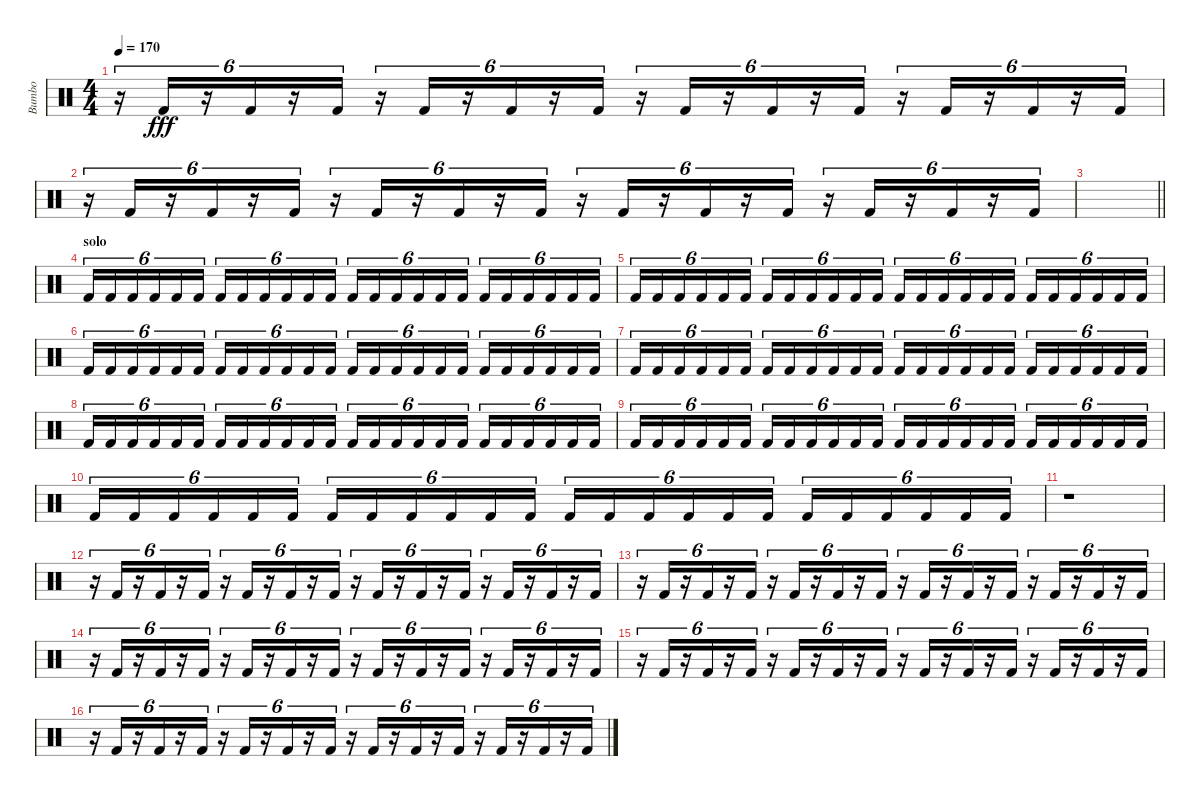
\track ("Bumbo" "Bumbo") {instrument percussion}
\staff {score}
\articulation defaults
\ts (4 4)
\tempo 170
\clef neutral
\ks c
r.16{tu (6 4) dy fff} "Kick (hit) 2".16{tu (6 4)} r.16{tu (6 4)} "Kick (hit) 2".16{tu (6 4)} r.16{tu (6 4)} "Kick (hit) 2".16{tu (6 4)} r.16{tu (6 4)} "Kick (hit) 2".16{tu (6 4)} r.16{tu (6 4)} "Kick (hit) 2".16{tu (6 4)} r.16{tu (6 4)} "Kick (hit) 2".16{tu (6 4)} r.16{tu (6 4)} "Kick (hit) 2".16{tu (6 4)} r.16{tu (6 4)} "Kick (hit) 2".16{tu (6 4)} r.16{tu (6 4)} "Kick (hit) 2".16{tu (6 4)} r.16{tu (6 4)} "Kick (hit) 2".16{tu (6 4)} r.16{tu (6 4)} "Kick (hit) 2".16{tu (6 4)} r.16{tu (6 4)} "Kick (hit) 2".16{tu (6 4)} |
r.16{tu (6 4)} "Kick (hit) 2".16{tu (6 4)} r.16{tu (6 4)} "Kick (hit) 2".16{tu (6 4)} r.16{tu (6 4)} "Kick (hit) 2".16{tu (6 4)} r.16{tu (6 4)} "Kick (hit) 2".16{tu (6 4)} r.16{tu (6 4)} "Kick (hit) 2".16{tu (6 4)} r.16{tu (6 4)} "Kick (hit) 2".16{tu (6 4)} r.16{tu (6 4)} "Kick (hit) 2".16{tu (6 4)} r.16{tu (6 4)} "Kick (hit) 2".16{tu (6 4)} r.16{tu (6 4)} "Kick (hit) 2".16{tu (6 4)} r.16{tu (6 4)} "Kick (hit) 2".16{tu (6 4)} r.16{tu (6 4)} "Kick (hit) 2".16{tu (6 4)} r.16{tu (6 4)} "Kick (hit) 2".16{tu (6 4)} |
\barLineRight lightlight
|
\section ("" "solo")
"Kick (hit) 2".16{tu (6 4)} "Kick (hit) 2".16{tu (6 4)} "Kick (hit) 2".16{tu (6 4)} "Kick (hit) 2".16{tu (6 4)} "Kick (hit) 2".16{tu (6 4)} "Kick (hit) 2".16{tu (6 4)} "Kick (hit) 2".16{tu (6 4)} "Kick (hit) 2".16{tu (6 4)} "Kick (hit) 2".16{tu (6 4)} "Kick (hit) 2".16{tu (6 4)} "Kick (hit) 2".16{tu (6 4)} "Kick (hit) 2".16{tu (6 4)} "Kick (hit) 2".16{tu (6 4)} "Kick (hit) 2".16{tu (6 4)} "Kick (hit) 2".16{tu (6 4)} "Kick (hit) 2".16{tu (6 4)} "Kick (hit) 2".16{tu (6 4)} "Kick (hit) 2".16{tu (6 4)} "Kick (hit) 2".16{tu (6 4)} "Kick (hit) 2".16{tu (6 4)} "Kick (hit) 2".16{tu (6 4)} "Kick (hit) 2".16{tu (6 4)} "Kick (hit) 2".16{tu (6 4)} "Kick (hit) 2".16{tu (6 4)} |
"Kick (hit) 2".16{tu (6 4)} "Kick (hit) 2".16{tu (6 4)} "Kick (hit) 2".16{tu (6 4)} "Kick (hit) 2".16{tu (6 4)} "Kick (hit) 2".16{tu (6 4)} "Kick (hit) 2".16{tu (6 4)} "Kick (hit) 2".16{tu (6 4)} "Kick (hit) 2".16{tu (6 4)} "Kick (hit) 2".16{tu (6 4)} "Kick (hit) 2".16{tu (6 4)} "Kick (hit) 2".16{tu (6 4)} "Kick (hit) 2".16{tu (6 4)} "Kick (hit) 2".16{tu (6 4)} "Kick (hit) 2".16{tu (6 4)} "Kick (hit) 2".16{tu (6 4)} "Kick (hit) 2".16{tu (6 4)} "Kick (hit) 2".16{tu (6 4)} "Kick (hit) 2".16{tu (6 4)} "Kick (hit) 2".16{tu (6 4)} "Kick (hit) 2".16{tu (6 4)} "Kick (hit) 2".16{tu (6 4)} "Kick (hit) 2".16{tu (6 4)} "Kick (hit) 2".16{tu (6 4)} "Kick (hit) 2".16{tu (6 4)} |
"Kick (hit) 2".16{tu (6 4)} "Kick (hit) 2".16{tu (6 4)} "Kick (hit) 2".16{tu (6 4)} "Kick (hit) 2".16{tu (6 4)} "Kick (hit) 2".16{tu (6 4)} "Kick (hit) 2".16{tu (6 4)} "Kick (hit) 2".16{tu (6 4)} "Kick (hit) 2".16{tu (6 4)} "Kick (hit) 2".16{tu (6 4)} "Kick (hit) 2".16{tu (6 4)} "Kick (hit) 2".16{tu (6 4)} "Kick (hit) 2".16{tu (6 4)} "Kick (hit) 2".16{tu (6 4)} "Kick (hit) 2".16{tu (6 4)} "Kick (hit) 2".16{tu (6 4)} "Kick (hit) 2".16{tu (6 4)} "Kick (hit) 2".16{tu (6 4)} "Kick (hit) 2".16{tu (6 4)} "Kick (hit) 2".16{tu (6 4)} "Kick (hit) 2".16{tu (6 4)} "Kick (hit) 2".16{tu (6 4)} "Kick (hit) 2".16{tu (6 4)} "Kick (hit) 2".16{tu (6 4)} "Kick (hit) 2".16{tu (6 4)} |
"Kick (hit) 2".16{tu (6 4)} "Kick (hit) 2".16{tu (6 4)} "Kick (hit) 2".16{tu (6 4)} "Kick (hit) 2".16{tu (6 4)} "Kick (hit) 2".16{tu (6 4)} "Kick (hit) 2".16{tu (6 4)} "Kick (hit) 2".16{tu (6 4)} "Kick (hit) 2".16{tu (6 4)} "Kick (hit) 2".16{tu (6 4)} "Kick (hit) 2".16{tu (6 4)} "Kick (hit) 2".16{tu (6 4)} "Kick (hit) 2".16{tu (6 4)} "Kick (hit) 2".16{tu (6 4)} "Kick (hit) 2".16{tu (6 4)} "Kick (hit) 2".16{tu (6 4)} "Kick (hit) 2".16{tu (6 4)} "Kick (hit) 2".16{tu (6 4)} "Kick (hit) 2".16{tu (6 4)} "Kick (hit) 2".16{tu (6 4)} "Kick (hit) 2".16{tu (6 4)} "Kick (hit) 2".16{tu (6 4)} "Kick (hit) 2".16{tu (6 4)} "Kick (hit) 2".16{tu (6 4)} "Kick (hit) 2".16{tu (6 4)} |
"Kick (hit) 2".16{tu (6 4)} "Kick (hit) 2".16{tu (6 4)} "Kick (hit) 2".16{tu (6 4)} "Kick (hit) 2".16{tu (6 4)} "Kick (hit) 2".16{tu (6 4)} "Kick (hit) 2".16{tu (6 4)} "Kick (hit) 2".16{tu (6 4)} "Kick (hit) 2".16{tu (6 4)} "Kick (hit) 2".16{tu (6 4)} "Kick (hit) 2".16{tu (6 4)} "Kick (hit) 2".16{tu (6 4)} "Kick (hit) 2".16{tu (6 4)} "Kick (hit) 2".16{tu (6 4)} "Kick (hit) 2".16{tu (6 4)} "Kick (hit) 2".16{tu (6 4)} "Kick (hit) 2".16{tu (6 4)} "Kick (hit) 2".16{tu (6 4)} "Kick (hit) 2".16{tu (6 4)} "Kick (hit) 2".16{tu (6 4)} "Kick (hit) 2".16{tu (6 4)} "Kick (hit) 2".16{tu (6 4)} "Kick (hit) 2".16{tu (6 4)} "Kick (hit) 2".16{tu (6 4)} "Kick (hit) 2".16{tu (6 4)} |
"Kick (hit) 2".16{tu (6 4)} "Kick (hit) 2".16{tu (6 4)} "Kick (hit) 2".16{tu (6 4)} "Kick (hit) 2".16{tu (6 4)} "Kick (hit) 2".16{tu (6 4)} "Kick (hit) 2".16{tu (6 4)} "Kick (hit) 2".16{tu (6 4)} "Kick (hit) 2".16{tu (6 4)} "Kick (hit) 2".16{tu (6 4)} "Kick (hit) 2".16{tu (6 4)} "Kick (hit) 2".16{tu (6 4)} "Kick (hit) 2".16{tu (6 4)} "Kick (hit) 2".16{tu (6 4)} "Kick (hit) 2".16{tu (6 4)} "Kick (hit) 2".16{tu (6 4)} "Kick (hit) 2".16{tu (6 4)} "Kick (hit) 2".16{tu (6 4)} "Kick (hit) 2".16{tu (6 4)} "Kick (hit) 2".16{tu (6 4)} "Kick (hit) 2".16{tu (6 4)} "Kick (hit) 2".16{tu (6 4)} "Kick (hit) 2".16{tu (6 4)} "Kick (hit) 2".16{tu (6 4)} "Kick (hit) 2".16{tu (6 4)} |
"Kick (hit) 2".16{tu (6 4)} "Kick (hit) 2".16{tu (6 4)} "Kick (hit) 2".16{tu (6 4)} "Kick (hit) 2".16{tu (6 4)} "Kick (hit) 2".16{tu (6 4)} "Kick (hit) 2".16{tu (6 4)} "Kick (hit) 2".16{tu (6 4)} "Kick (hit) 2".16{tu (6 4)} "Kick (hit) 2".16{tu (6 4)} "Kick (hit) 2".16{tu (6 4)} "Kick (hit) 2".16{tu (6 4)} "Kick (hit) 2".16{tu (6 4)} "Kick (hit) 2".16{tu (6 4)} "Kick (hit) 2".16{tu (6 4)} "Kick (hit) 2".16{tu (6 4)} "Kick (hit) 2".16{tu (6 4)} "Kick (hit) 2".16{tu (6 4)} "Kick (hit) 2".16{tu (6 4)} "Kick (hit) 2".16{tu (6 4)} "Kick (hit) 2".16{tu (6 4)} "Kick (hit) 2".16{tu (6 4)} "Kick (hit) 2".16{tu (6 4)} "Kick (hit) 2".16{tu (6 4)} "Kick (hit) 2".16{tu (6 4)} |
r.1 |
r.16{tu (6 4)} "Kick (hit) 2".16{tu (6 4)} r.16{tu (6 4)} "Kick (hit) 2".16{tu (6 4)} r.16{tu (6 4)} "Kick (hit) 2".16{tu (6 4)} r.16{tu (6 4)} "Kick (hit) 2".16{tu (6 4)} r.16{tu (6 4)} "Kick (hit) 2".16{tu (6 4)} r.16{tu (6 4)} "Kick (hit) 2".16{tu (6 4)} r.16{tu (6 4)} "Kick (hit) 2".16{tu (6 4)} r.16{tu (6 4)} "Kick (hit) 2".16{tu (6 4)} r.16{tu (6 4)} "Kick (hit) 2".16{tu (6 4)} r.16{tu (6 4)} "Kick (hit) 2".16{tu (6 4)} r.16{tu (6 4)} "Kick (hit) 2".16{tu (6 4)} r.16{tu (6 4)} "Kick (hit) 2".16{tu (6 4)} |
r.16{tu (6 4)} "Kick (hit) 2".16{tu (6 4)} r.16{tu (6 4)} "Kick (hit) 2".16{tu (6 4)} r.16{tu (6 4)} "Kick (hit) 2".16{tu (6 4)} r.16{tu (6 4)} "Kick (hit) 2".16{tu (6 4)} r.16{tu (6 4)} "Kick (hit) 2".16{tu (6 4)} r.16{tu (6 4)} "Kick (hit) 2".16{tu (6 4)} r.16{tu (6 4)} "Kick (hit) 2".16{tu (6 4)} r.16{tu (6 4)} "Kick (hit) 2".16{tu (6 4)} r.16{tu (6 4)} "Kick (hit) 2".16{tu (6 4)} r.16{tu (6 4)} "Kick (hit) 2".16{tu (6 4)} r.16{tu (6 4)} "Kick (hit) 2".16{tu (6 4)} r.16{tu (6 4)} "Kick (hit) 2".16{tu (6 4)} |
r.16{tu (6 4)} "Kick (hit) 2".16{tu (6 4)} r.16{tu (6 4)} "Kick (hit) 2".16{tu (6 4)} r.16{tu (6 4)} "Kick (hit) 2".16{tu (6 4)} r.16{tu (6 4)} "Kick (hit) 2".16{tu (6 4)} r.16{tu (6 4)} "Kick (hit) 2".16{tu (6 4)} r.16{tu (6 4)} "Kick (hit) 2".16{tu (6 4)} r.16{tu (6 4)} "Kick (hit) 2".16{tu (6 4)} r.16{tu (6 4)} "Kick (hit) 2".16{tu (6 4)} r.16{tu (6 4)} "Kick (hit) 2".16{tu (6 4)} r.16{tu (6 4)} "Kick (hit) 2".16{tu (6 4)} r.16{tu (6 4)} "Kick (hit) 2".16{tu (6 4)} r.16{tu (6 4)} "Kick (hit) 2".16{tu (6 4)} |
r.16{tu (6 4)} "Kick (hit) 2".16{tu (6 4)} r.16{tu (6 4)} "Kick (hit) 2".16{tu (6 4)} r.16{tu (6 4)} "Kick (hit) 2".16{tu (6 4)} r.16{tu (6 4)} "Kick (hit) 2".16{tu (6 4)} r.16{tu (6 4)} "Kick (hit) 2".16{tu (6 4)} r.16{tu (6 4)} "Kick (hit) 2".16{tu (6 4)} r.16{tu (6 4)} "Kick (hit) 2".16{tu (6 4)} r.16{tu (6 4)} "Kick (hit) 2".16{tu (6 4)} r.16{tu (6 4)} "Kick (hit) 2".16{tu (6 4)} r.16{tu (6 4)} "Kick (hit) 2".16{tu (6 4)} r.16{tu (6 4)} "Kick (hit) 2".16{tu (6 4)} r.16{tu (6 4)} "Kick (hit) 2".16{tu (6 4)} |
r.16{tu (6 4)} "Kick (hit) 2".16{tu (6 4)} r.16{tu (6 4)} "Kick (hit) 2".16{tu (6 4)} r.16{tu (6 4)} "Kick (hit) 2".16{tu (6 4)} r.16{tu (6 4)} "Kick (hit) 2".16{tu (6 4)} r.16{tu (6 4)} "Kick (hit) 2".16{tu (6 4)} r.16{tu (6 4)} "Kick (hit) 2".16{tu (6 4)} r.16{tu (6 4)} "Kick (hit) 2".16{tu (6 4)} r.16{tu (6 4)} "Kick (hit) 2".16{tu (6 4)} r.16{tu (6 4)} "Kick (hit) 2".16{tu (6 4)} r.16{tu (6 4)} "Kick (hit) 2".16{tu (6 4)} r.16{tu (6 4)} "Kick (hit) 2".16{tu (6 4)} r.16{tu (6 4)} "Kick (hit) 2".16{tu (6 4)}
